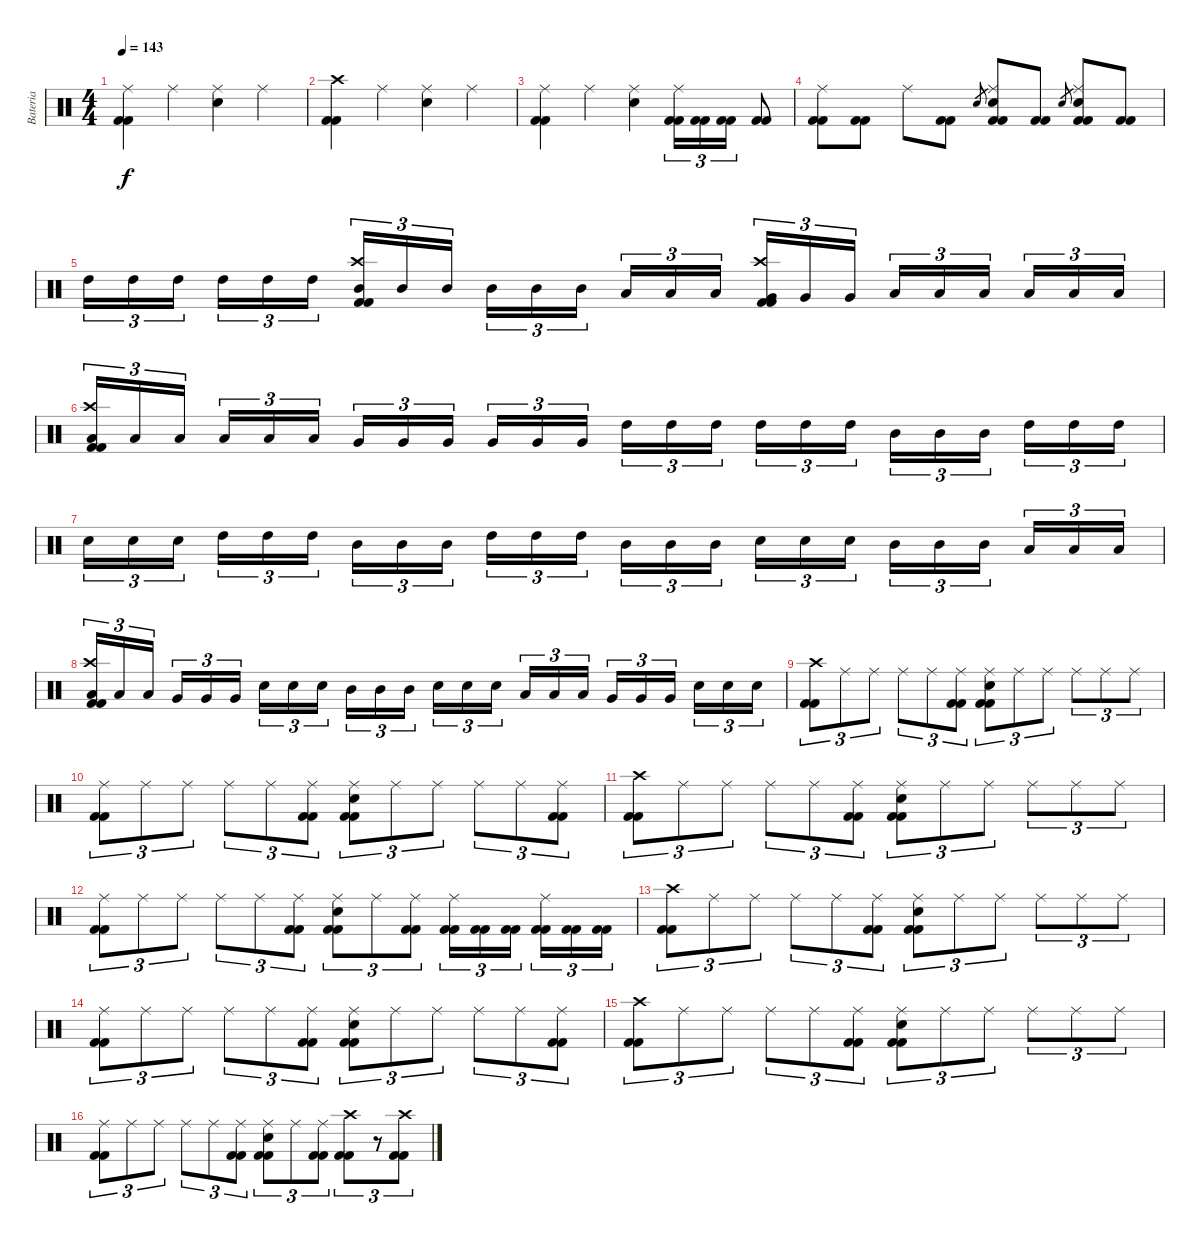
\track ("Bateria" "Bateria") {instrument percussion}
\staff {score}
\articulation defaults
\ts (4 4)
\tempo 143
\clef neutral
\ks c
("Kick (hit) 2" "Kick (hit) 2" "Ride (middle)").4{dy f} "Ride (middle)".4 ("Snare (hit) 2" "Ride (middle)").4 "Ride (middle)".4 |
("Kick (hit) 2" "Kick (hit) 2" "Crash high (hit)").4 "Ride (middle)".4 ("Snare (hit) 2" "Ride (middle)").4 "Ride (middle)".4 |
("Kick (hit) 2" "Kick (hit) 2" "Ride (middle)").4 "Ride (middle)".4 ("Snare (hit) 2" "Ride (middle)").4 ("Kick (hit) 2" "Kick (hit) 2" "Ride (middle)").16{tu (3 2)} ("Kick (hit) 2" "Kick (hit) 2").16{tu (3 2)} ("Kick (hit) 2" "Kick (hit) 2").16{tu (3 2)} ("Kick (hit) 2" "Kick (hit) 2").8 |
("Kick (hit) 2" "Kick (hit) 2" "Ride (middle)").8 ("Kick (hit) 2" "Kick (hit) 2").8 "Ride (middle)".8 ("Kick (hit) 2" "Kick (hit) 2").8 "Snare (hit) 2".8{gr} ("Kick (hit) 2" "Kick (hit) 2" "Snare (hit) 2" "Ride (middle)").8 ("Kick (hit) 2" "Kick (hit) 2").8 "Snare (hit) 2".8{gr} ("Kick (hit) 2" "Kick (hit) 2" "Snare (hit) 2" "Ride (middle)").8 ("Kick (hit) 2" "Kick (hit) 2").8 |
"High Tom (hit)".16{tu (3 2)} "High Tom (hit)".16{tu (3 2)} "High Tom (hit)".16{tu (3 2)} "High Tom (hit)".16{tu (3 2)} "High Tom (hit)".16{tu (3 2)} "High Tom (hit)".16{tu (3 2)} ("Kick (hit) 2" "Kick (hit) 2" "Mid Tom (hit)" "Crash high (hit)").16{tu (3 2)} "Mid Tom (hit)".16{tu (3 2)} "Mid Tom (hit)".16{tu (3 2)} "Mid Tom (hit)".16{tu (3 2)} "Mid Tom (hit)".16{tu (3 2)} "Mid Tom (hit)".16{tu (3 2)} "Low Tom (hit)".16{tu (3 2)} "Low Tom (hit)".16{tu (3 2)} "Low Tom (hit)".16{tu (3 2)} ("Kick (hit) 2" "Kick (hit) 2" "Very Low Tom (hit)" "Crash high (hit)").16{tu (3 2)} "Very Low Tom (hit)".16{tu (3 2)} "Very Low Tom (hit)".16{tu (3 2)} "Low Floor Tom (hit)".16{tu (3 2)} "Low Floor Tom (hit)".16{tu (3 2)} "Low Floor Tom (hit)".16{tu (3 2)} "Low Floor Tom (hit)".16{tu (3 2)} "Low Floor Tom (hit)".16{tu (3 2)} "Low Floor Tom (hit)".16{tu (3 2)} |
("Kick (hit) 2" "Kick (hit) 2" "Low Tom (hit)" "Crash high (hit)").16{tu (3 2)} "Low Tom (hit)".16{tu (3 2)} "Low Tom (hit)".16{tu (3 2)} "Low Tom (hit)".16{tu (3 2)} "Low Tom (hit)".16{tu (3 2)} "Low Tom (hit)".16{tu (3 2)} "Very Low Tom (hit)".16{tu (3 2)} "Very Low Tom (hit)".16{tu (3 2)} "Very Low Tom (hit)".16{tu (3 2)} "Very Low Tom (hit)".16{tu (3 2)} "Very Low Tom (hit)".16{tu (3 2)} "Very Low Tom (hit)".16{tu (3 2)} "High Tom (hit)".16{tu (3 2)} "High Tom (hit)".16{tu (3 2)} "High Tom (hit)".16{tu (3 2)} "High Tom (hit)".16{tu (3 2)} "High Tom (hit)".16{tu (3 2)} "High Tom (hit)".16{tu (3 2)} "Mid Tom (hit)".16{tu (3 2)} "Mid Tom (hit)".16{tu (3 2)} "Mid Tom (hit)".16{tu (3 2)} "High Tom (hit)".16{tu (3 2)} "High Tom (hit)".16{tu (3 2)} "High Tom (hit)".16{tu (3 2)} |
"Snare (hit) 2".16{tu (3 2)} "Snare (hit) 2".16{tu (3 2)} "Snare (hit) 2".16{tu (3 2)} "High Tom (hit)".16{tu (3 2)} "High Tom (hit)".16{tu (3 2)} "High Tom (hit)".16{tu (3 2)} "Mid Tom (hit)".16{tu (3 2)} "Mid Tom (hit)".16{tu (3 2)} "Mid Tom (hit)".16{tu (3 2)} "High Tom (hit)".16{tu (3 2)} "High Tom (hit)".16{tu (3 2)} "High Tom (hit)".16{tu (3 2)} "Mid Tom (hit)".16{tu (3 2)} "Mid Tom (hit)".16{tu (3 2)} "Mid Tom (hit)".16{tu (3 2)} "Snare (hit) 2".16{tu (3 2)} "Snare (hit) 2".16{tu (3 2)} "Snare (hit) 2".16{tu (3 2)} "Mid Tom (hit)".16{tu (3 2)} "Mid Tom (hit)".16{tu (3 2)} "Mid Tom (hit)".16{tu (3 2)} "Low Tom (hit)".16{tu (3 2)} "Low Tom (hit)".16{tu (3 2)} "Low Tom (hit)".16{tu (3 2)} |
("Kick (hit) 2" "Kick (hit) 2" "Low Tom (hit)" "Crash high (hit)").16{tu (3 2)} "Low Tom (hit)".16{tu (3 2)} "Low Tom (hit)".16{tu (3 2)} "Very Low Tom (hit)".16{tu (3 2)} "Very Low Tom (hit)".16{tu (3 2)} "Very Low Tom (hit)".16{tu (3 2)} "Snare (hit) 2".16{tu (3 2)} "Snare (hit) 2".16{tu (3 2)} "Snare (hit) 2".16{tu (3 2)} "Mid Tom (hit)".16{tu (3 2)} "Mid Tom (hit)".16{tu (3 2)} "Mid Tom (hit)".16{tu (3 2)} "Snare (hit) 2".16{tu (3 2)} "Snare (hit) 2".16{tu (3 2)} "Snare (hit) 2".16{tu (3 2)} "Low Tom (hit)".16{tu (3 2)} "Low Tom (hit)".16{tu (3 2)} "Low Tom (hit)".16{tu (3 2)} "Very Low Tom (hit)".16{tu (3 2)} "Very Low Tom (hit)".16{tu (3 2)} "Very Low Tom (hit)".16{tu (3 2)} "Snare (hit) 2".16{tu (3 2)} "Snare (hit) 2".16{tu (3 2)} "Snare (hit) 2".16{tu (3 2)} |
("Kick (hit) 2" "Kick (hit) 2" "Crash high (hit)").8{tu (3 2)} "Ride (middle)".8{tu (3 2)} "Ride (middle)".8{tu (3 2)} "Ride (middle)".8{tu (3 2)} "Ride (middle)".8{tu (3 2)} ("Kick (hit) 2" "Kick (hit) 2" "Ride (middle)").8{tu (3 2)} ("Kick (hit) 2" "Kick (hit) 2" "Snare (hit) 2" "Ride (middle)").8{tu (3 2)} "Ride (middle)".8{tu (3 2)} "Ride (middle)".8{tu (3 2)} "Ride (middle)".8{tu (3 2)} "Ride (middle)".8{tu (3 2)} "Ride (middle)".8{tu (3 2)} |
("Kick (hit) 2" "Kick (hit) 2" "Ride (middle)").8{tu (3 2)} "Ride (middle)".8{tu (3 2)} "Ride (middle)".8{tu (3 2)} "Ride (middle)".8{tu (3 2)} "Ride (middle)".8{tu (3 2)} ("Kick (hit) 2" "Kick (hit) 2" "Ride (middle)").8{tu (3 2)} ("Kick (hit) 2" "Kick (hit) 2" "Snare (hit) 2" "Ride (middle)").8{tu (3 2)} "Ride (middle)".8{tu (3 2)} "Ride (middle)".8{tu (3 2)} "Ride (middle)".8{tu (3 2)} "Ride (middle)".8{tu (3 2)} ("Kick (hit) 2" "Kick (hit) 2" "Ride (middle)").8{tu (3 2)} |
("Kick (hit) 2" "Kick (hit) 2" "Crash high (hit)").8{tu (3 2)} "Ride (middle)".8{tu (3 2)} "Ride (middle)".8{tu (3 2)} "Ride (middle)".8{tu (3 2)} "Ride (middle)".8{tu (3 2)} ("Kick (hit) 2" "Kick (hit) 2" "Ride (middle)").8{tu (3 2)} ("Kick (hit) 2" "Kick (hit) 2" "Snare (hit) 2" "Ride (middle)").8{tu (3 2)} "Ride (middle)".8{tu (3 2)} "Ride (middle)".8{tu (3 2)} "Ride (middle)".8{tu (3 2)} "Ride (middle)".8{tu (3 2)} "Ride (middle)".8{tu (3 2)} |
("Kick (hit) 2" "Kick (hit) 2" "Ride (middle)").8{tu (3 2)} "Ride (middle)".8{tu (3 2)} "Ride (middle)".8{tu (3 2)} "Ride (middle)".8{tu (3 2)} "Ride (middle)".8{tu (3 2)} ("Kick (hit) 2" "Kick (hit) 2" "Ride (middle)").8{tu (3 2)} ("Kick (hit) 2" "Kick (hit) 2" "Snare (hit) 2" "Ride (middle)").8{tu (3 2)} "Ride (middle)".8{tu (3 2)} ("Kick (hit) 2" "Kick (hit) 2" "Ride (middle)").8{tu (3 2)} ("Kick (hit) 2" "Kick (hit) 2" "Ride (middle)").16{tu (3 2)} ("Kick (hit) 2" "Kick (hit) 2").16{tu (3 2)} ("Kick (hit) 2" "Kick (hit) 2").16{tu (3 2)} ("Kick (hit) 2" "Kick (hit) 2" "Ride (middle)").16{tu (3 2)} ("Kick (hit) 2" "Kick (hit) 2").16{tu (3 2)} ("Kick (hit) 2" "Kick (hit) 2").16{tu (3 2)} |
("Kick (hit) 2" "Kick (hit) 2" "Crash high (hit)").8{tu (3 2)} "Ride (middle)".8{tu (3 2)} "Ride (middle)".8{tu (3 2)} "Ride (middle)".8{tu (3 2)} "Ride (middle)".8{tu (3 2)} ("Kick (hit) 2" "Kick (hit) 2" "Ride (middle)").8{tu (3 2)} ("Kick (hit) 2" "Kick (hit) 2" "Snare (hit) 2" "Ride (middle)").8{tu (3 2)} "Ride (middle)".8{tu (3 2)} "Ride (middle)".8{tu (3 2)} "Ride (middle)".8{tu (3 2)} "Ride (middle)".8{tu (3 2)} "Ride (middle)".8{tu (3 2)} |
("Kick (hit) 2" "Kick (hit) 2" "Ride (middle)").8{tu (3 2)} "Ride (middle)".8{tu (3 2)} "Ride (middle)".8{tu (3 2)} "Ride (middle)".8{tu (3 2)} "Ride (middle)".8{tu (3 2)} ("Kick (hit) 2" "Kick (hit) 2" "Ride (middle)").8{tu (3 2)} ("Kick (hit) 2" "Kick (hit) 2" "Snare (hit) 2" "Ride (middle)").8{tu (3 2)} "Ride (middle)".8{tu (3 2)} "Ride (middle)".8{tu (3 2)} "Ride (middle)".8{tu (3 2)} "Ride (middle)".8{tu (3 2)} ("Kick (hit) 2" "Kick (hit) 2" "Ride (middle)").8{tu (3 2)} |
("Kick (hit) 2" "Kick (hit) 2" "Crash high (hit)").8{tu (3 2)} "Ride (middle)".8{tu (3 2)} "Ride (middle)".8{tu (3 2)} "Ride (middle)".8{tu (3 2)} "Ride (middle)".8{tu (3 2)} ("Kick (hit) 2" "Kick (hit) 2" "Ride (middle)").8{tu (3 2)} ("Kick (hit) 2" "Kick (hit) 2" "Snare (hit) 2" "Ride (middle)").8{tu (3 2)} "Ride (middle)".8{tu (3 2)} "Ride (middle)".8{tu (3 2)} "Ride (middle)".8{tu (3 2)} "Ride (middle)".8{tu (3 2)} "Ride (middle)".8{tu (3 2)} |
("Kick (hit) 2" "Kick (hit) 2" "Ride (middle)").8{tu (3 2)} "Ride (middle)".8{tu (3 2)} "Ride (middle)".8{tu (3 2)} "Ride (middle)".8{tu (3 2)} "Ride (middle)".8{tu (3 2)} ("Kick (hit) 2" "Kick (hit) 2" "Ride (middle)").8{tu (3 2)} ("Kick (hit) 2" "Kick (hit) 2" "Snare (hit) 2" "Ride (middle)").8{tu (3 2)} "Ride (middle)".8{tu (3 2)} ("Kick (hit) 2" "Kick (hit) 2" "Ride (middle)").8{tu (3 2)} ("Kick (hit) 2" "Kick (hit) 2" "Crash high (hit)").8{tu (3 2)} r.8{tu (3 2)} ("Kick (hit) 2" "Kick (hit) 2" "Crash high (hit)").8{tu (3 2)}
